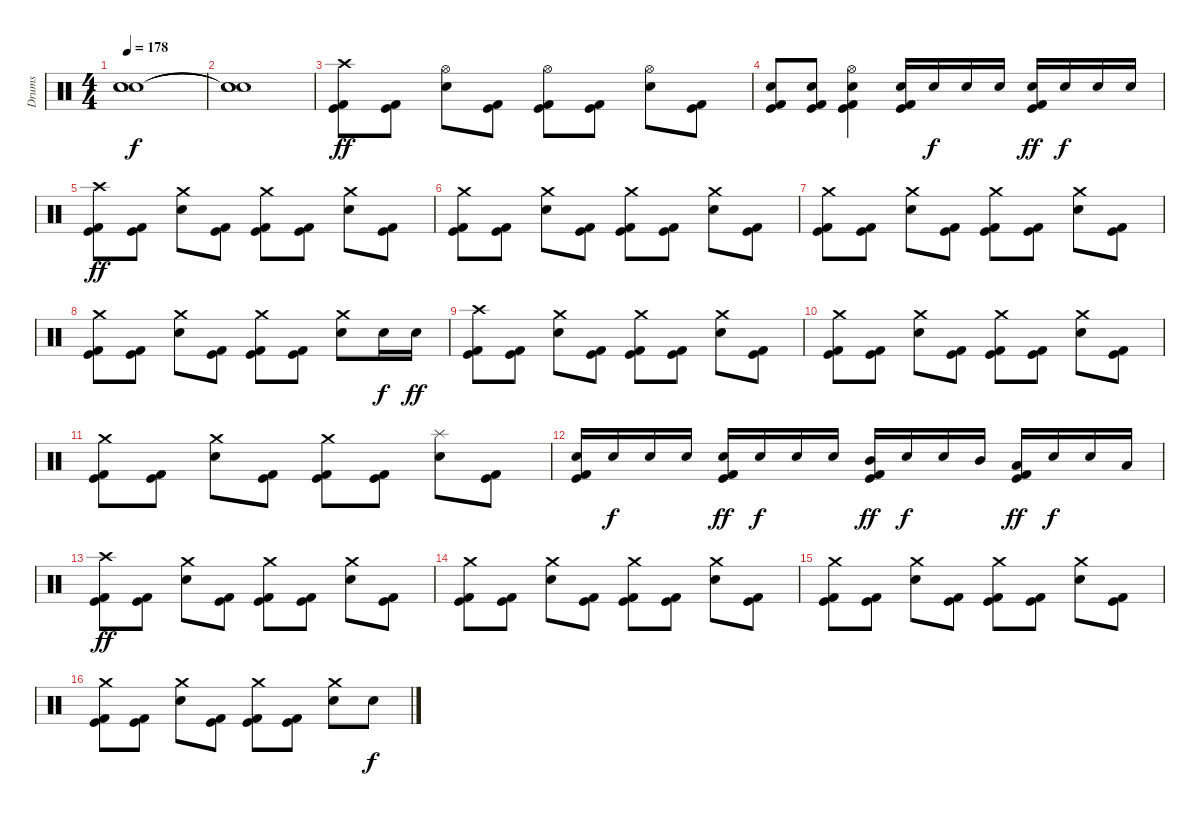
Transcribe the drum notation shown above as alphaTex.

\track ("Drums" "Drums") {instrument percussion}
\staff {score}
\articulation defaults
\ts (4 4)
\tempo 178
\clef neutral
\ks c
("Snare (hit)"{t} "Snare (hit)"{t} "Snare (hit)"{t}).1{dy f} |
("Snare (hit)"{t} "Snare (hit)"{t} "Snare (hit)"{t}).1 |
("Kick (hit)" "Kick (hit) 2" "Crash high (hit)").8{dy ff} ("Kick (hit)" "Kick (hit) 2").8 ("Electric Snare (hit)" "Hi-Hat (open)").8 ("Kick (hit)" "Kick (hit) 2").8 ("Kick (hit)" "Kick (hit) 2" "Hi-Hat (open)").8 ("Kick (hit)" "Kick (hit) 2").8 ("Electric Snare (hit)" "Hi-Hat (open)").8 ("Kick (hit)" "Kick (hit) 2").8 |
("Kick (hit)" "Kick (hit) 2" "Electric Snare (hit)").8 ("Kick (hit)" "Kick (hit) 2" "Electric Snare (hit)").8 ("Kick (hit)" "Kick (hit) 2" "Electric Snare (hit)" "Hi-Hat (open)").4 ("Kick (hit)" "Kick (hit) 2" "Electric Snare (hit)").16 "Electric Snare (hit)".16{dy f} "Electric Snare (hit)".16 "Electric Snare (hit)".16 ("Kick (hit)" "Kick (hit) 2" "Electric Snare (hit)").16{dy ff} "Electric Snare (hit)".16{dy f} "Electric Snare (hit)".16 "Electric Snare (hit)".16 |
("Kick (hit)" "Kick (hit) 2" "Crash high (hit)").8{dy ff} ("Kick (hit)" "Kick (hit) 2").8 ("Electric Snare (hit)" "Crash medium (hit)").8 ("Kick (hit)" "Kick (hit) 2").8 ("Kick (hit)" "Kick (hit) 2" "Crash medium (hit)").8 ("Kick (hit)" "Kick (hit) 2").8 ("Electric Snare (hit)" "Crash medium (hit)").8 ("Kick (hit)" "Kick (hit) 2").8 |
("Kick (hit)" "Kick (hit) 2" "Crash medium (hit)").8 ("Kick (hit)" "Kick (hit) 2").8 ("Electric Snare (hit)" "Crash medium (hit)").8 ("Kick (hit)" "Kick (hit) 2").8 ("Kick (hit)" "Kick (hit) 2" "Crash medium (hit)").8 ("Kick (hit)" "Kick (hit) 2").8 ("Electric Snare (hit)" "Crash medium (hit)").8 ("Kick (hit)" "Kick (hit) 2").8 |
("Kick (hit)" "Kick (hit) 2" "Crash medium (hit)").8 ("Kick (hit)" "Kick (hit) 2").8 ("Electric Snare (hit)" "Crash medium (hit)").8 ("Kick (hit)" "Kick (hit) 2").8 ("Kick (hit)" "Kick (hit) 2" "Crash medium (hit)").8 ("Kick (hit)" "Kick (hit) 2").8 ("Electric Snare (hit)" "Crash medium (hit)").8 ("Kick (hit)" "Kick (hit) 2").8 |
("Kick (hit)" "Kick (hit) 2" "Crash medium (hit)").8 ("Kick (hit)" "Kick (hit) 2").8 ("Electric Snare (hit)" "Crash medium (hit)").8 ("Kick (hit)" "Kick (hit) 2").8 ("Kick (hit)" "Kick (hit) 2" "Crash medium (hit)").8 ("Kick (hit)" "Kick (hit) 2").8 ("Electric Snare (hit)" "Crash medium (hit)").8 "Electric Snare (hit)".16{dy f} "Electric Snare (hit)".16{dy ff} |
("Kick (hit)" "Kick (hit) 2" "Crash high (hit)").8 ("Kick (hit)" "Kick (hit) 2").8 ("Electric Snare (hit)" "Crash medium (hit)").8 ("Kick (hit)" "Kick (hit) 2").8 ("Kick (hit)" "Kick (hit) 2" "Crash medium (hit)").8 ("Kick (hit)" "Kick (hit) 2").8 ("Electric Snare (hit)" "Crash medium (hit)").8 ("Kick (hit)" "Kick (hit) 2").8 |
("Kick (hit)" "Kick (hit) 2" "Crash medium (hit)").8 ("Kick (hit)" "Kick (hit) 2").8 ("Electric Snare (hit)" "Crash medium (hit)").8 ("Kick (hit)" "Kick (hit) 2").8 ("Kick (hit)" "Kick (hit) 2" "Crash medium (hit)").8 ("Kick (hit)" "Kick (hit) 2").8 ("Electric Snare (hit)" "Crash medium (hit)").8 ("Kick (hit)" "Kick (hit) 2").8 |
("Kick (hit)" "Kick (hit) 2" "Crash medium (hit)").8 ("Kick (hit)" "Kick (hit) 2").8 ("Electric Snare (hit)" "Crash medium (hit)").8 ("Kick (hit)" "Kick (hit) 2").8 ("Kick (hit)" "Kick (hit) 2" "Crash medium (hit)").8 ("Kick (hit)" "Kick (hit) 2").8 ("Electric Snare (hit)" "Splash (hit)").8 ("Kick (hit)" "Kick (hit) 2").8 |
("Kick (hit)" "Kick (hit) 2" "Electric Snare (hit)").16 "Electric Snare (hit)".16{dy f} "Electric Snare (hit)".16 "Electric Snare (hit)".16 ("Kick (hit)" "Kick (hit) 2" "Electric Snare (hit)").16{dy ff} "Electric Snare (hit)".16{dy f} "Electric Snare (hit)".16 "Electric Snare (hit)".16 ("Kick (hit)" "Kick (hit) 2" "Mid Tom (hit)").16{dy ff} "Electric Snare (hit)".16{dy f} "Electric Snare (hit)".16 "Mid Tom (hit)".16 ("Kick (hit)" "Kick (hit) 2" "Low Tom (hit)").16{dy ff} "Electric Snare (hit)".16{dy f} "Electric Snare (hit)".16 "Low Tom (hit)".16 |
("Kick (hit)" "Kick (hit) 2" "Crash high (hit)").8{dy ff} ("Kick (hit)" "Kick (hit) 2").8 ("Electric Snare (hit)" "Crash medium (hit)").8 ("Kick (hit)" "Kick (hit) 2").8 ("Kick (hit)" "Kick (hit) 2" "Crash medium (hit)").8 ("Kick (hit)" "Kick (hit) 2").8 ("Electric Snare (hit)" "Crash medium (hit)").8 ("Kick (hit)" "Kick (hit) 2").8 |
("Kick (hit)" "Kick (hit) 2" "Crash medium (hit)").8 ("Kick (hit)" "Kick (hit) 2").8 ("Electric Snare (hit)" "Crash medium (hit)").8 ("Kick (hit)" "Kick (hit) 2").8 ("Kick (hit)" "Kick (hit) 2" "Crash medium (hit)").8 ("Kick (hit)" "Kick (hit) 2").8 ("Electric Snare (hit)" "Crash medium (hit)").8 ("Kick (hit)" "Kick (hit) 2").8 |
("Kick (hit)" "Kick (hit) 2" "Crash medium (hit)").8 ("Kick (hit)" "Kick (hit) 2").8 ("Electric Snare (hit)" "Crash medium (hit)").8 ("Kick (hit)" "Kick (hit) 2").8 ("Kick (hit)" "Kick (hit) 2" "Crash medium (hit)").8 ("Kick (hit)" "Kick (hit) 2").8 ("Electric Snare (hit)" "Crash medium (hit)").8 ("Kick (hit)" "Kick (hit) 2").8 |
("Kick (hit)" "Kick (hit) 2" "Crash medium (hit)").8 ("Kick (hit)" "Kick (hit) 2").8 ("Electric Snare (hit)" "Crash medium (hit)").8 ("Kick (hit)" "Kick (hit) 2").8 ("Kick (hit)" "Kick (hit) 2" "Crash medium (hit)").8 ("Kick (hit)" "Kick (hit) 2").8 ("Electric Snare (hit)" "Crash medium (hit)").8 "Electric Snare (hit)".8{dy f}
